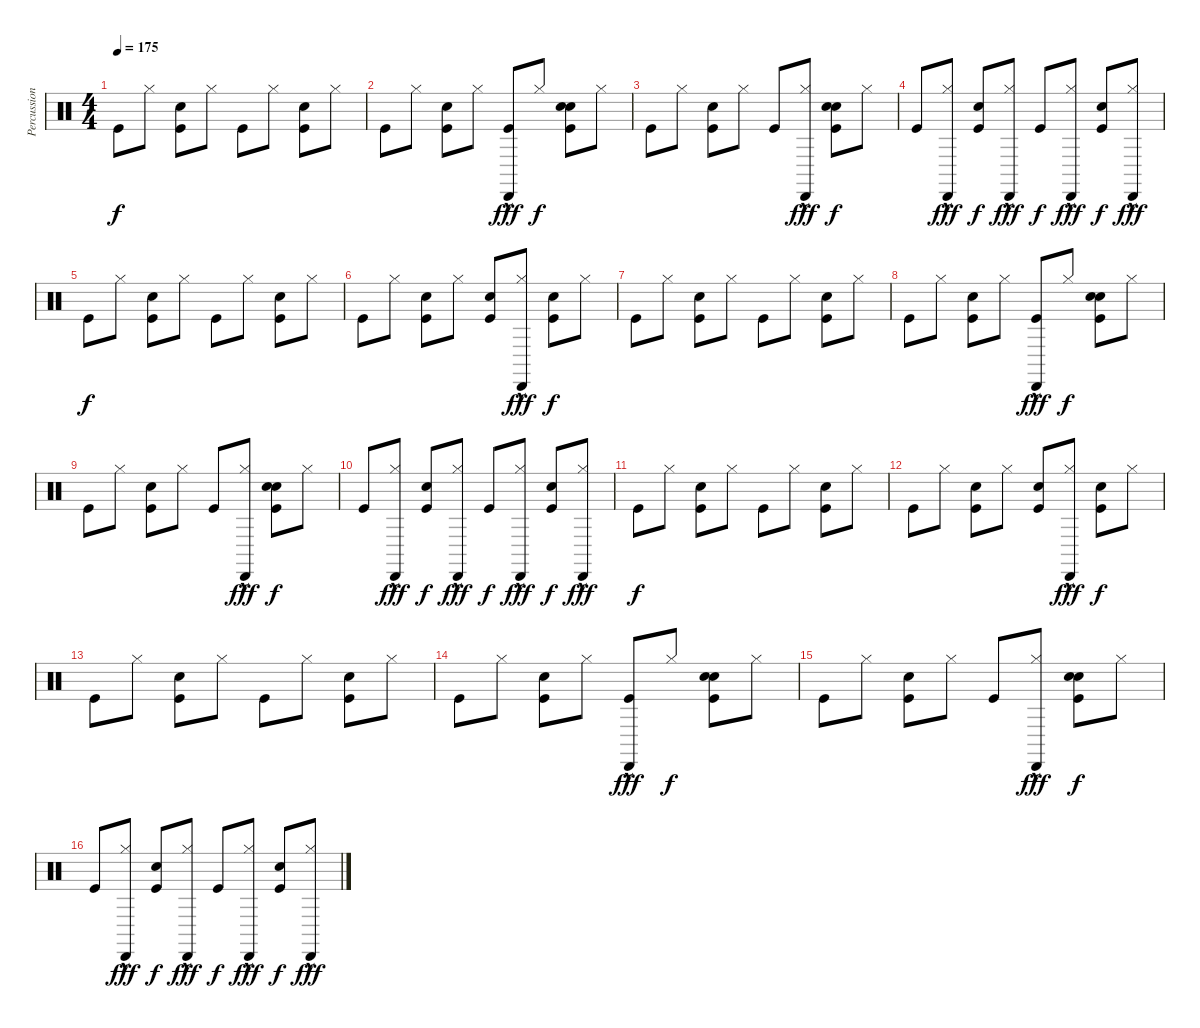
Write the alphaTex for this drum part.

\track ("Percussion" "Percussion") {instrument percussion}
\staff {score}
\articulation defaults
\ts (4 4)
\tempo 175
\clef neutral
\ks c "Kick (hit)".8{dy f} "Hi-Hat (closed)".8
("Kick (hit)" "Snare (hit) 2").8 "Hi-Hat (closed)".8 "Kick (hit)".8 "Hi-Hat (closed)".8 ("Kick (hit)" "Snare (hit) 2").8 "Hi-Hat (closed)".8 |
"Kick (hit)".8 "Hi-Hat (closed)".8 ("Kick (hit)" "Snare (hit) 2").8 "Hi-Hat (closed)".8 ("Kick (hit)" "Cabasa (hit)"{hac}).8{dy fff} "Hi-Hat (closed)".8{dy f} ("Kick (hit)" "Snare (hit) 2" "Hand Clap (hit)").8 "Hi-Hat (closed)".8 |
"Kick (hit)".8 "Hi-Hat (closed)".8 ("Kick (hit)" "Snare (hit) 2").8 "Hi-Hat (closed)".8 "Kick (hit)".8 ("Hi-Hat (closed)" "Cabasa (hit)"{hac}).8{dy fff} ("Kick (hit)" "Snare (hit) 2" "Hand Clap (hit)").8{dy f} "Hi-Hat (closed)".8 |
"Kick (hit)".8 ("Hi-Hat (closed)" "Cabasa (hit)"{hac}).8{dy fff} ("Kick (hit)" "Snare (hit) 2").8{dy f} ("Hi-Hat (closed)" "Cabasa (hit)"{hac}).8{dy fff} "Kick (hit)".8{dy f} ("Hi-Hat (closed)" "Cabasa (hit)"{hac}).8{dy fff} ("Kick (hit)" "Snare (hit) 2").8{dy f} ("Hi-Hat (closed)" "Cabasa (hit)"{hac}).8{dy fff} |
"Kick (hit)".8{dy f} "Hi-Hat (closed)".8 ("Kick (hit)" "Snare (hit) 2").8 "Hi-Hat (closed)".8 "Kick (hit)".8 "Hi-Hat (closed)".8 ("Kick (hit)" "Snare (hit) 2").8 "Hi-Hat (closed)".8 |
"Kick (hit)".8 "Hi-Hat (closed)".8 ("Kick (hit)" "Snare (hit) 2").8 "Hi-Hat (closed)".8 ("Kick (hit)" "Hand Clap (hit)").8 ("Hi-Hat (closed)" "Cabasa (hit)"{hac}).8{dy fff} ("Kick (hit)" "Snare (hit) 2").8{dy f} "Hi-Hat (closed)".8 |
"Kick (hit)".8 "Hi-Hat (closed)".8 ("Kick (hit)" "Snare (hit) 2").8 "Hi-Hat (closed)".8 "Kick (hit)".8 "Hi-Hat (closed)".8 ("Kick (hit)" "Snare (hit) 2").8 "Hi-Hat (closed)".8 |
"Kick (hit)".8 "Hi-Hat (closed)".8 ("Kick (hit)" "Snare (hit) 2").8 "Hi-Hat (closed)".8 ("Kick (hit)" "Cabasa (hit)"{hac}).8{dy fff} "Hi-Hat (closed)".8{dy f} ("Kick (hit)" "Snare (hit) 2" "Hand Clap (hit)").8 "Hi-Hat (closed)".8 |
"Kick (hit)".8 "Hi-Hat (closed)".8 ("Kick (hit)" "Snare (hit) 2").8 "Hi-Hat (closed)".8 "Kick (hit)".8 ("Hi-Hat (closed)" "Cabasa (hit)"{hac}).8{dy fff} ("Kick (hit)" "Snare (hit) 2" "Hand Clap (hit)").8{dy f} "Hi-Hat (closed)".8 |
"Kick (hit)".8 ("Hi-Hat (closed)" "Cabasa (hit)"{hac}).8{dy fff} ("Kick (hit)" "Snare (hit) 2").8{dy f} ("Hi-Hat (closed)" "Cabasa (hit)"{hac}).8{dy fff} "Kick (hit)".8{dy f} ("Hi-Hat (closed)" "Cabasa (hit)"{hac}).8{dy fff} ("Kick (hit)" "Snare (hit) 2").8{dy f} ("Hi-Hat (closed)" "Cabasa (hit)"{hac}).8{dy fff} |
"Kick (hit)".8{dy f} "Hi-Hat (closed)".8 ("Kick (hit)" "Snare (hit) 2").8 "Hi-Hat (closed)".8 "Kick (hit)".8 "Hi-Hat (closed)".8 ("Kick (hit)" "Snare (hit) 2").8 "Hi-Hat (closed)".8 |
"Kick (hit)".8 "Hi-Hat (closed)".8 ("Kick (hit)" "Snare (hit) 2").8 "Hi-Hat (closed)".8 ("Kick (hit)" "Hand Clap (hit)").8 ("Hi-Hat (closed)" "Cabasa (hit)"{hac}).8{dy fff} ("Kick (hit)" "Snare (hit) 2").8{dy f} "Hi-Hat (closed)".8 |
"Kick (hit)".8 "Hi-Hat (closed)".8 ("Kick (hit)" "Snare (hit) 2").8 "Hi-Hat (closed)".8 "Kick (hit)".8 "Hi-Hat (closed)".8 ("Kick (hit)" "Snare (hit) 2").8 "Hi-Hat (closed)".8 |
"Kick (hit)".8 "Hi-Hat (closed)".8 ("Kick (hit)" "Snare (hit) 2").8 "Hi-Hat (closed)".8 ("Kick (hit)" "Cabasa (hit)"{hac}).8{dy fff} "Hi-Hat (closed)".8{dy f} ("Kick (hit)" "Snare (hit) 2" "Hand Clap (hit)").8 "Hi-Hat (closed)".8 |
"Kick (hit)".8 "Hi-Hat (closed)".8 ("Kick (hit)" "Snare (hit) 2").8 "Hi-Hat (closed)".8 "Kick (hit)".8 ("Hi-Hat (closed)" "Cabasa (hit)"{hac}).8{dy fff} ("Kick (hit)" "Snare (hit) 2" "Hand Clap (hit)").8{dy f} "Hi-Hat (closed)".8 |
"Kick (hit)".8 ("Hi-Hat (closed)" "Cabasa (hit)"{hac}).8{dy fff} ("Kick (hit)" "Snare (hit) 2").8{dy f} ("Hi-Hat (closed)" "Cabasa (hit)"{hac}).8{dy fff} "Kick (hit)".8{dy f} ("Hi-Hat (closed)" "Cabasa (hit)"{hac}).8{dy fff} ("Kick (hit)" "Snare (hit) 2").8{dy f} ("Hi-Hat (closed)" "Cabasa (hit)"{hac}).8{dy fff}
